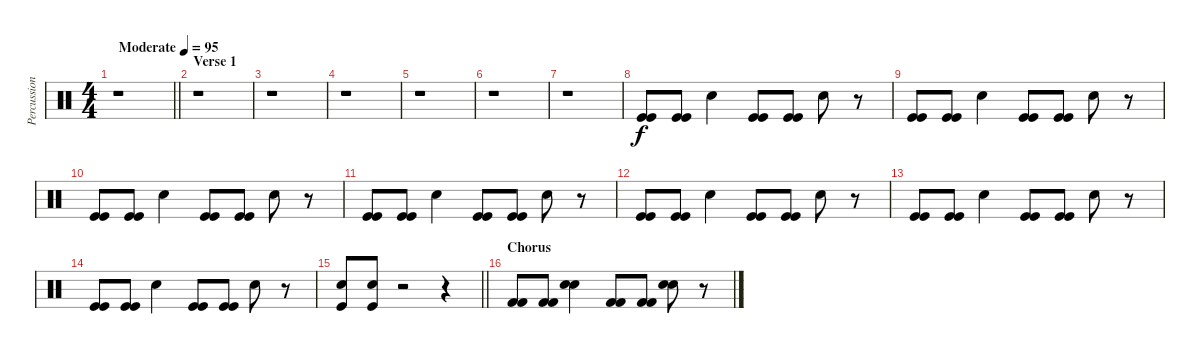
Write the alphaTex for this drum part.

\track ("Percussion" "Percussion") {instrument percussion}
\staff {score}
\articulation defaults
\ts (4 4)
\tempo (95 "Moderate")
\clef neutral
\barLineRight lightlight
\ks c
r.1{dy f} |
\section ("" "Verse 1")
r.1 |
r.1 |
r.1 |
r.1 |
r.1 |
r.1 |
("Kick (hit)" "Kick (hit)").8 ("Kick (hit)" "Kick (hit)").8 "Hand Clap (hit)".4 ("Kick (hit)" "Kick (hit)").8 ("Kick (hit)" "Kick (hit)").8 "Hand Clap (hit)".8 r.8 |
("Kick (hit)" "Kick (hit)").8 ("Kick (hit)" "Kick (hit)").8 "Hand Clap (hit)".4 ("Kick (hit)" "Kick (hit)").8 ("Kick (hit)" "Kick (hit)").8 "Hand Clap (hit)".8 r.8 |
("Kick (hit)" "Kick (hit)").8 ("Kick (hit)" "Kick (hit)").8 "Hand Clap (hit)".4 ("Kick (hit)" "Kick (hit)").8 ("Kick (hit)" "Kick (hit)").8 "Hand Clap (hit)".8 r.8 |
("Kick (hit)" "Kick (hit)").8 ("Kick (hit)" "Kick (hit)").8 "Hand Clap (hit)".4 ("Kick (hit)" "Kick (hit)").8 ("Kick (hit)" "Kick (hit)").8 "Hand Clap (hit)".8 r.8 |
("Kick (hit)" "Kick (hit)").8 ("Kick (hit)" "Kick (hit)").8 "Hand Clap (hit)".4 ("Kick (hit)" "Kick (hit)").8 ("Kick (hit)" "Kick (hit)").8 "Hand Clap (hit)".8 r.8 |
("Kick (hit)" "Kick (hit)").8 ("Kick (hit)" "Kick (hit)").8 "Hand Clap (hit)".4 ("Kick (hit)" "Kick (hit)").8 ("Kick (hit)" "Kick (hit)").8 "Hand Clap (hit)".8 r.8 |
("Kick (hit)" "Kick (hit)").8 ("Kick (hit)" "Kick (hit)").8 "Hand Clap (hit)".4 ("Kick (hit)" "Kick (hit)").8 ("Kick (hit)" "Kick (hit)").8 "Hand Clap (hit)".8 r.8 |
\barLineRight lightlight
("Kick (hit)" "Snare (hit) 2").8 ("Kick (hit)" "Snare (hit) 2").8 r.2 r.4 |
\section ("" "Chorus")
("Kick (hit) 2" "Kick (hit) 2").8 ("Kick (hit) 2" "Kick (hit) 2").8 ("Electric Snare (hit)" "Electric Snare (hit)").4 ("Kick (hit) 2" "Kick (hit) 2").8 ("Kick (hit) 2" "Kick (hit) 2").8 ("Electric Snare (hit)" "Electric Snare (hit)").8 r.8
